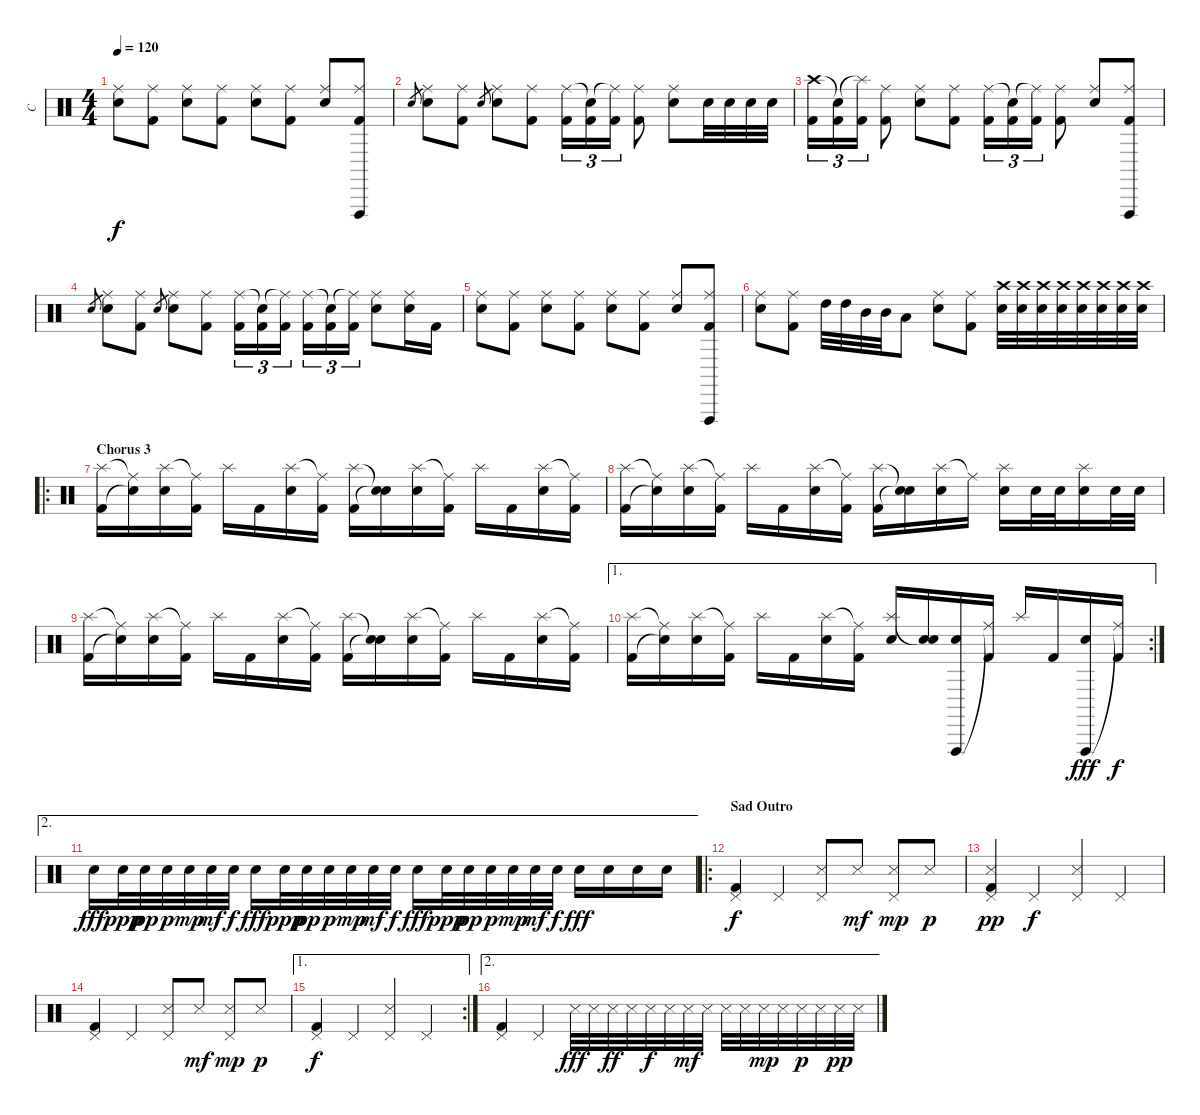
\track ("C" "C") {instrument percussion}
\staff {score}
\articulation defaults
\ts (4 4)
\tempo 120
\clef neutral
\ks c
("Ride (middle)" "Electric Snare (hit)").8{dy f} ("Ride (middle)" "Kick (hit) 2").8 ("Ride (middle)" "Electric Snare (hit)").8 ("Ride (middle)" "Kick (hit) 2").8 ("Ride (middle)" "Electric Snare (hit)").8 ("Ride (middle)" "Kick (hit) 2").8 ("Ride (middle)" "Electric Snare (hit)").8 ("Ride (middle)" "Vibraslap (hit)" "Kick (hit) 2").8 |
"Electric Snare (hit)".8{gr} ("Ride (middle)" "Electric Snare (hit)").8 ("Ride (middle)" "Kick (hit) 2").8 "Electric Snare (hit)".8{gr} ("Ride (middle)" "Electric Snare (hit)").8 ("Ride (middle)" "Kick (hit) 2").8 ("Ride (middle)" "Kick (hit) 2").16{tu (3 2)} ("Snare (hit)"{t} "Kick (hit) 2").16{tu (3 2)} ("Ride (middle)"{t} "Kick (hit) 2").16{tu (3 2)} ("Ride (middle)" "Kick (hit) 2").8 ("Ride (middle)" "Electric Snare (hit)").8 "Electric Snare (hit)".32 "Electric Snare (hit)".32 "Electric Snare (hit)".32 "Electric Snare (hit)".32 |
("Crash high (hit)" "Kick (hit) 2").16{tu (3 2)} ("Snare (hit)"{t} "Kick (hit) 2").16{tu (3 2)} ("Splash (hit)"{t} "Kick (hit) 2").16{tu (3 2)} ("Ride (middle)" "Kick (hit) 2").8 ("Ride (middle)" "Electric Snare (hit)").8 ("Ride (middle)" "Kick (hit) 2").8 ("Ride (middle)" "Kick (hit) 2").16{tu (3 2)} ("Snare (hit)"{t} "Kick (hit) 2").16{tu (3 2)} ("Ride (middle)"{t} "Kick (hit) 2").16{tu (3 2)} ("Ride (middle)" "Kick (hit) 2").8 ("Ride (middle)" "Electric Snare (hit)").8 ("Ride (middle)" "Vibraslap (hit)" "Kick (hit) 2").8 |
"Electric Snare (hit)".8{gr} ("Ride (middle)" "Electric Snare (hit)").8 ("Ride (middle)" "Kick (hit) 2").8 "Electric Snare (hit)".8{gr} ("Ride (middle)" "Electric Snare (hit)").8 ("Ride (middle)" "Kick (hit) 2").8 ("Ride (middle)" "Kick (hit) 2").16{tu (3 2)} ("Snare (hit)"{t} "Kick (hit) 2").16{tu (3 2)} ("Ride (middle)"{t} "Kick (hit) 2").16{tu (3 2)} ("Ride (middle)" "Kick (hit) 2").16{tu (3 2)} ("Snare (hit)"{t} "Kick (hit) 2").16{tu (3 2)} ("Ride (middle)"{t} "Kick (hit) 2").16{tu (3 2)} ("Ride (middle)" "Electric Snare (hit)").8 ("Ride (middle)" "Electric Snare (hit)").16 "Kick (hit) 2".16 |
("Ride (middle)" "Electric Snare (hit)").8 ("Ride (middle)" "Kick (hit) 2").8 ("Ride (middle)" "Electric Snare (hit)").8 ("Ride (middle)" "Kick (hit) 2").8 ("Ride (middle)" "Electric Snare (hit)").8 ("Ride (middle)" "Kick (hit) 2").8 ("Ride (middle)" "Electric Snare (hit)").8 ("Ride (middle)" "Vibraslap (hit)" "Kick (hit) 2").8 |
("Ride (middle)" "Electric Snare (hit)").8 ("Ride (middle)" "Kick (hit) 2").8 "High Tom (hit)".32 "High Tom (hit)".32 "Mid Tom (hit)".32 "Mid Tom (hit)".32 "Low Tom (hit)".8 ("Ride (middle)" "Electric Snare (hit)").8 ("Ride (middle)" "Kick (hit) 2").8 ("Crash high (hit)" "Electric Snare (hit)").32 ("Crash high (hit)" "Electric Snare (hit)").32 ("Crash high (hit)" "Electric Snare (hit)").32 ("Crash high (hit)" "Electric Snare (hit)").32 ("Crash high (hit)" "Electric Snare (hit)").32 ("Crash high (hit)" "Electric Snare (hit)").32 ("Crash high (hit)" "Electric Snare (hit)").32 ("Crash high (hit)" "Electric Snare (hit)").32 |
\ro
\section ("" "Chorus 3")
("Splash (hit)" "Kick (hit) 2").16 ("Ride (middle)"{t} "Snare (hit)"{t}).16 ("Splash (hit)" "Electric Snare (hit)").16 ("Ride (middle)"{t} "Kick (hit) 2").16 "Splash (hit)".16 "Kick (hit) 2".16 ("Splash (hit)" "Electric Snare (hit)").16 ("Ride (middle)"{t} "Kick (hit) 2").16 ("Splash (hit)" "Kick (hit) 2").16 ("Snare (hit)"{t} "Snare (hit)"{t}).16 ("Splash (hit)" "Electric Snare (hit)").16 ("Ride (middle)"{t} "Kick (hit) 2").16 "Splash (hit)".16 "Kick (hit) 2".16 ("Splash (hit)" "Electric Snare (hit)").16 ("Ride (middle)"{t} "Kick (hit) 2").16 |
("Splash (hit)" "Kick (hit) 2").16 ("Ride (middle)"{t} "Snare (hit)"{t}).16 ("Splash (hit)" "Electric Snare (hit)").16 ("Ride (middle)"{t} "Kick (hit) 2").16 "Splash (hit)".16 "Kick (hit) 2".16 ("Splash (hit)" "Electric Snare (hit)").16 ("Ride (middle)"{t} "Kick (hit) 2").16 ("Splash (hit)" "Kick (hit) 2").16 ("Snare (hit)"{t} "Snare (hit)"{t}).16 ("Splash (hit)" "Electric Snare (hit)").16 "Ride (middle)"{t}.16 ("Splash (hit)" "Electric Snare (hit)").16 "Electric Snare (hit)".32 "Electric Snare (hit)".32 ("Splash (hit)" "Electric Snare (hit)").16 "Electric Snare (hit)".32 "Electric Snare (hit)".32 |
("Splash (hit)" "Kick (hit) 2").16 ("Ride (middle)"{t} "Snare (hit)"{t}).16 ("Splash (hit)" "Electric Snare (hit)").16 ("Ride (middle)"{t} "Kick (hit) 2").16 "Splash (hit)".16 "Kick (hit) 2".16 ("Splash (hit)" "Electric Snare (hit)").16 ("Ride (middle)"{t} "Kick (hit) 2").16 ("Splash (hit)" "Kick (hit) 2").16 ("Snare (hit)"{t} "Snare (hit)"{t}).16 ("Splash (hit)" "Electric Snare (hit)").16 ("Ride (middle)"{t} "Kick (hit) 2").16 "Splash (hit)".16 "Kick (hit) 2".16 ("Splash (hit)" "Electric Snare (hit)").16 ("Ride (middle)"{t} "Kick (hit) 2").16 |
\ae 1
\rc 2
("Splash (hit)" "Kick (hit) 2").16 ("Ride (middle)"{t} "Snare (hit)"{t}).16 ("Splash (hit)" "Electric Snare (hit)").16 ("Ride (middle)"{t} "Kick (hit) 2").16 "Splash (hit)".16 "Kick (hit) 2".16 ("Splash (hit)" "Electric Snare (hit)").16 ("Ride (middle)"{t} "Kick (hit) 2").16 ("Splash (hit)" "Electric Snare (hit)").16 ("Snare (hit)"{t} "Electric Snare (hit)").16 ("Vibraslap (hit)" "Electric Snare (hit)").16 ("Ride (middle)"{t} "Kick (hit) 2").16 "Splash (hit)".16 "Kick (hit) 2".16 ("Vibraslap (hit)" "Electric Snare (hit)").16{dy fff} ("Ride (middle)"{t} "Kick (hit) 2").16{dy f} |
\ae 2 "Electric Snare (hit)".16{dy fff} "Electric Snare (hit)".32{dy ppp} "Electric Snare (hit)".32{dy pp} "Electric Snare (hit)".32{dy p} "Electric Snare (hit)".32{dy mp} "Electric Snare (hit)".32{dy mf} "Electric Snare (hit)".32{dy f} "Electric Snare (hit)".16{dy fff} "Electric Snare (hit)".32{dy ppp} "Electric Snare (hit)".32{dy pp} "Electric Snare (hit)".32{dy p} "Electric Snare (hit)".32{dy mp} "Electric Snare (hit)".32{dy mf} "Electric Snare (hit)".32{dy f} "Electric Snare (hit)".16{dy fff} "Electric Snare (hit)".32{dy ppp} "Electric Snare (hit)".32{dy pp} "Electric Snare (hit)".32{dy p} "Electric Snare (hit)".32{dy mp} "Electric Snare (hit)".32{dy mf} "Electric Snare (hit)".32{dy f} "Electric Snare (hit)".16{dy fff} "Electric Snare (hit)".16 "Electric Snare (hit)".16 "Electric Snare (hit)".16
|
\ro
\section ("" "Sad Outro")
("Pedal Hi-Hat (hit)" "Kick (hit) 2").4{dy f balance 0} "Pedal Hi-Hat (hit)".4{balance 16} ("Pedal Hi-Hat (hit)" "Snare (side stick) 3").8 "Snare (side stick) 3".8{dy mf} ("Pedal Hi-Hat (hit)" "Snare (side stick) 3").8{dy mp} "Snare (side stick) 3".8{dy p} |
("Pedal Hi-Hat (hit)" "Snare (side stick) 3" "Kick (hit) 2").4{dy pp balance 0} "Pedal Hi-Hat (hit)".4{dy f balance 16} ("Pedal Hi-Hat (hit)" "Snare (side stick) 3").4{balance 0} "Pedal Hi-Hat (hit)".4{balance 16} |
("Pedal Hi-Hat (hit)" "Kick (hit) 2").4{balance 0} "Pedal Hi-Hat (hit)".4{balance 16} ("Pedal Hi-Hat (hit)" "Snare (side stick) 3").8 "Snare (side stick) 3".8{dy mf} ("Pedal Hi-Hat (hit)" "Snare (side stick) 3").8{dy mp} "Snare (side stick) 3".8{dy p} |
\ae 1
\rc 2
("Pedal Hi-Hat (hit)" "Kick (hit) 2").4{dy f balance 0} "Pedal Hi-Hat (hit)".4{balance 16} ("Pedal Hi-Hat (hit)" "Snare (side stick) 3").4{balance 0} "Pedal Hi-Hat (hit)".4{balance 16} |
\ae 2
("Pedal Hi-Hat (hit)" "Kick (hit) 2").4{balance 0} "Pedal Hi-Hat (hit)".4{balance 8} "Snare (side stick) 3".32{dy fff} "Snare (side stick) 3".32 "Snare (side stick) 3".32{dy ff} "Snare (side stick) 3".32 "Snare (side stick) 3".32{dy f} "Snare (side stick) 3".32 "Snare (side stick) 3".32{dy mf} "Snare (side stick) 3".32 "Snare (side stick) 3".32 "Snare (side stick) 3".32 "Snare (side stick) 3".32{dy mp} "Snare (side stick) 3".32 "Snare (side stick) 3".32{dy p} "Snare (side stick) 3".32 "Snare (side stick) 3".32{dy pp} "Snare (side stick) 3".32
